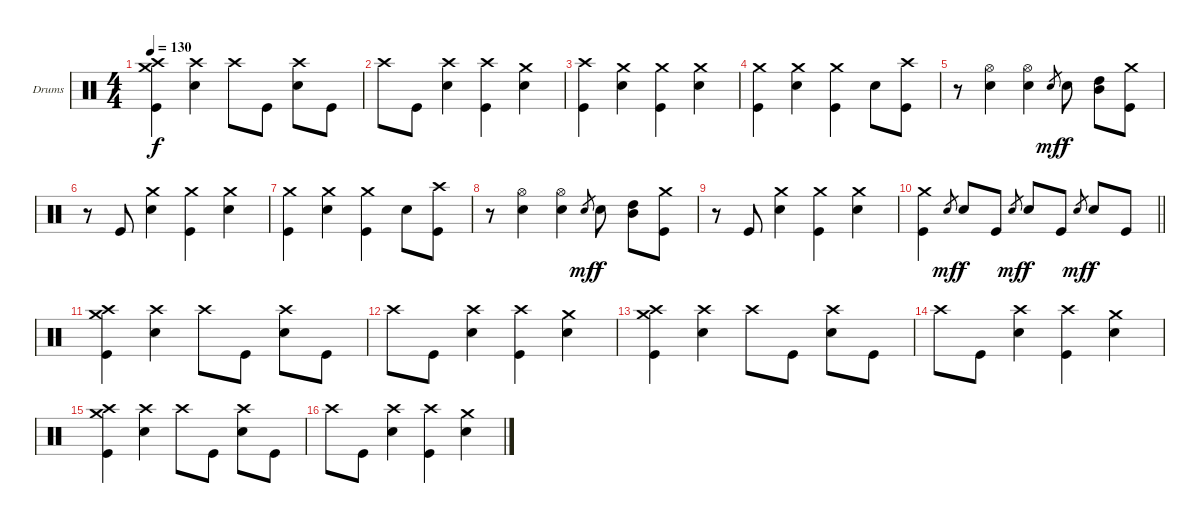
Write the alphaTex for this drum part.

\bracketExtendMode groupsimilarinstruments
\firstSystemTrackNameOrientation horizontal
\otherSystemsTrackNameOrientation horizontal
\track ("Drumkit" "Drums") {instrument percussion}
\staff {score}
\articulation defaults
\ts (4 4)
\tempo 130
\clef neutral
\ks c
("Crash high (hit)" "Crash medium (hit)" "Kick (hit)").4{dy f} ("Crash high (hit)" "Snare (hit) 2").4 "Crash high (hit)".8 "Kick (hit)".8 ("Crash high (hit)" "Snare (hit) 2").8 "Kick (hit)".8 |
"Crash high (hit)".8 "Kick (hit)".8 ("Crash high (hit)" "Snare (hit) 2").4 ("Crash high (hit)" "Kick (hit)").4 ("Crash medium (hit)" "Snare (hit) 2").4 |
("Crash high (hit)" "Kick (hit)").4 ("Crash medium (hit)" "Snare (hit) 2").4 ("Crash medium (hit)" "Kick (hit)").4 ("Crash medium (hit)" "Snare (hit) 2").4 |
("Crash medium (hit)" "Kick (hit)").4 ("Crash medium (hit)" "Snare (hit) 2").4 ("Crash medium (hit)" "Kick (hit)").4 "Snare (hit) 2".8 ("Crash high (hit)" "Kick (hit)").8 |
r.8 ("Hi-Hat (open)" "Snare (hit) 2").4 ("Hi-Hat (open)" "Snare (hit) 2").4 "Snare (hit) 2".8{gr dy mf} "Snare (hit) 2".8{dy f} ("High Tom (hit)" "Mid Tom (hit)").8 ("Crash medium (hit)" "Kick (hit)").8 |
r.8 "Kick (hit)".8 ("Crash medium (hit)" "Snare (hit) 2").4 ("Crash medium (hit)" "Kick (hit)").4 ("Crash medium (hit)" "Snare (hit) 2").4 |
("Crash medium (hit)" "Kick (hit)").4 ("Crash medium (hit)" "Snare (hit) 2").4 ("Crash medium (hit)" "Kick (hit)").4 "Snare (hit) 2".8 ("Crash high (hit)" "Kick (hit)").8 |
r.8 ("Hi-Hat (open)" "Snare (hit) 2").4 ("Hi-Hat (open)" "Snare (hit) 2").4 "Snare (hit) 2".8{gr dy mf} "Snare (hit) 2".8{dy f} ("High Tom (hit)" "Mid Tom (hit)").8 ("Crash medium (hit)" "Kick (hit)").8 |
r.8 "Kick (hit)".8 ("Crash medium (hit)" "Snare (hit) 2").4 ("Crash medium (hit)" "Kick (hit)").4 ("Crash medium (hit)" "Snare (hit) 2").4 |
\barLineRight lightlight
("Crash medium (hit)" "Kick (hit)").4 "Snare (hit) 2".8{gr dy mf} "Snare (hit) 2".8{dy f} "Kick (hit)".8 "Snare (hit) 2".8{gr dy mf} "Snare (hit) 2".8{dy f} "Kick (hit)".8 "Snare (hit) 2".8{gr dy mf} "Snare (hit) 2".8{dy f} "Kick (hit)".8 |
("Crash high (hit)" "Crash medium (hit)" "Kick (hit)").4 ("Crash high (hit)" "Snare (hit) 2").4 "Crash high (hit)".8 "Kick (hit)".8 ("Crash high (hit)" "Snare (hit) 2").8 "Kick (hit)".8 |
"Crash high (hit)".8 "Kick (hit)".8 ("Crash high (hit)" "Snare (hit) 2").4 ("Crash high (hit)" "Kick (hit)").4 ("Crash medium (hit)" "Snare (hit) 2").4 |
("Crash high (hit)" "Crash medium (hit)" "Kick (hit)").4 ("Crash high (hit)" "Snare (hit) 2").4 "Crash high (hit)".8 "Kick (hit)".8 ("Crash high (hit)" "Snare (hit) 2").8 "Kick (hit)".8 |
"Crash high (hit)".8 "Kick (hit)".8 ("Crash high (hit)" "Snare (hit) 2").4 ("Crash high (hit)" "Kick (hit)").4 ("Crash medium (hit)" "Snare (hit) 2").4 |
("Crash high (hit)" "Crash medium (hit)" "Kick (hit)").4 ("Crash high (hit)" "Snare (hit) 2").4 "Crash high (hit)".8 "Kick (hit)".8 ("Crash high (hit)" "Snare (hit) 2").8 "Kick (hit)".8 |
"Crash high (hit)".8 "Kick (hit)".8 ("Crash high (hit)" "Snare (hit) 2").4 ("Crash high (hit)" "Kick (hit)").4 ("Crash medium (hit)" "Snare (hit) 2").4
